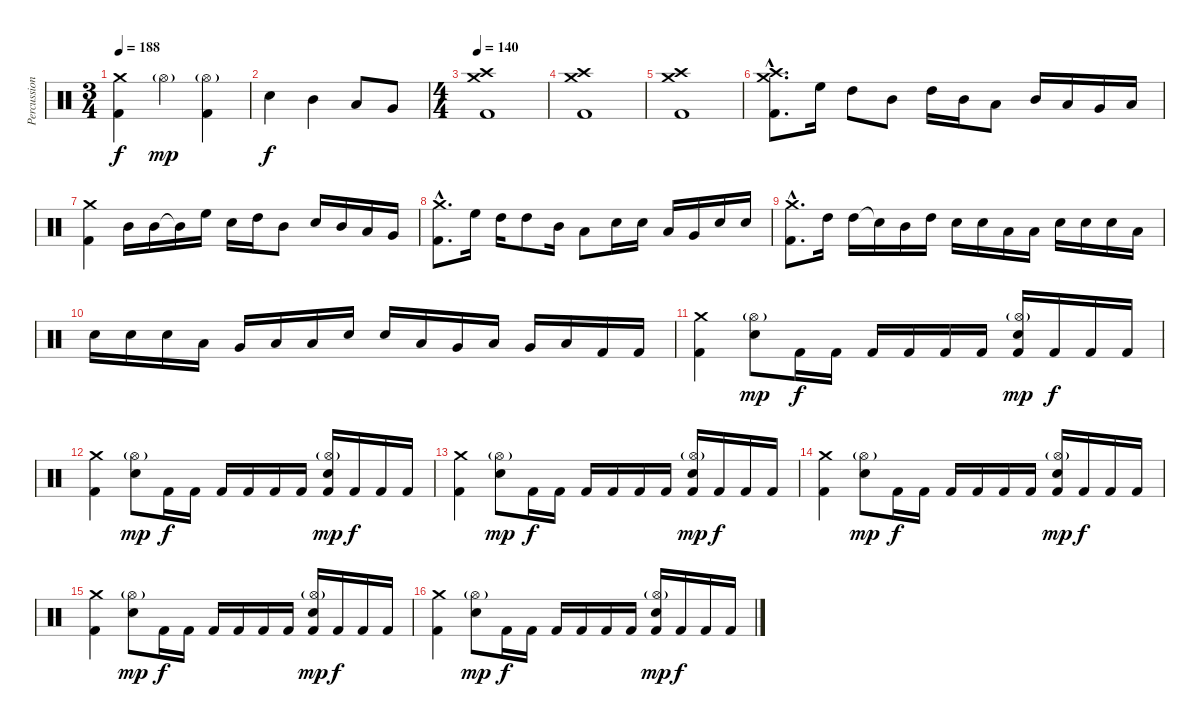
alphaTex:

\track ("Percussion" "Percussion") {instrument percussion}
\staff {score}
\articulation defaults
\ts (3 4)
\tempo 188
\clef neutral
\ks c
("Crash medium (hit)" "Kick (hit) 2").4{dy f} "Hi-Hat (open)"{g}.4{dy mp} ("Hi-Hat (open)"{g} "Kick (hit) 2").4 |
"Electric Snare (hit)".4{dy f} "Mid Tom (hit)".4 "Low Tom (hit)".8 "Very Low Tom (hit)".8 |
\ts (4 4)
\tempo 140
("Crash medium (hit)" "Crash high (hit)" "Kick (hit) 2").1 |
("Crash medium (hit)" "Crash high (hit)" "Kick (hit) 2").1 |
("Crash medium (hit)" "Crash high (hit)" "Kick (hit) 2").1 |
("Crash medium (hit)"{hac} "Crash high (hit)"{hac} "Kick (hit) 2"{hac}).8{d} "High Floor Tom (hit)".16 "High Tom (hit)".8 "Mid Tom (hit)".8 "High Tom (hit)".16 "Mid Tom (hit)".16 "Low Tom (hit)".8 "Mid Tom (hit)".16 "Low Tom (hit)".16 "Very Low Tom (hit)".16 "Low Floor Tom (hit)".16 |
("Crash medium (hit)" "Kick (hit) 2").4 "Mid Tom (hit)".16 "Mid Tom (hit)".16 "Mid Tom (hit)"{t}.16 "High Floor Tom (hit)".16 "Electric Snare (hit)".16 "High Tom (hit)".16 "Mid Tom (hit)".8 "Electric Snare (hit)".16 "Mid Tom (hit)".16 "Low Tom (hit)".16 "Very Low Tom (hit)".16 |
("Crash medium (hit)"{hac} "Kick (hit) 2"{hac}).8{d} "High Floor Tom (hit)".16 "High Tom (hit)".16 "High Tom (hit)".8 "Mid Tom (hit)".16 "Low Tom (hit)".8 "Electric Snare (hit)".16 "Electric Snare (hit)".16 "Low Tom (hit)".16 "Very Low Tom (hit)".16 "Electric Snare (hit)".16 "Electric Snare (hit)".16 |
("Crash medium (hit)"{hac} "Kick (hit) 2"{hac}).8{d} "High Tom (hit)".16 "High Tom (hit)".16 "Snare (hit)"{t}.16 "Mid Tom (hit)".16 "High Tom (hit)".16 "Electric Snare (hit)".16 "Electric Snare (hit)".16 "Low Tom (hit)".16 "Low Tom (hit)".16 "Electric Snare (hit)".16 "Electric Snare (hit)".16 "Electric Snare (hit)".16 "Low Tom (hit)".16 |
"Electric Snare (hit)".16 "Electric Snare (hit)".16 "Electric Snare (hit)".16 "Low Tom (hit)".16 "Very Low Tom (hit)".16 "Low Tom (hit)".16 "Low Tom (hit)".16 "Electric Snare (hit)".16 "Electric Snare (hit)".16 "Low Tom (hit)".16 "Very Low Tom (hit)".16 "Low Floor Tom (hit)".16 "Very Low Tom (hit)".16 "Low Floor Tom (hit)".16 "Kick (hit) 2".16 "Kick (hit) 2".16 |
("Crash medium (hit)" "Kick (hit) 2").4 ("Hi-Hat (open)"{g} "Electric Snare (hit)").8{dy mp} "Kick (hit) 2".16{dy f} "Kick (hit) 2".16 "Kick (hit) 2".16 "Kick (hit) 2".16 "Kick (hit) 2".16 "Kick (hit) 2".16 ("Hi-Hat (open)"{g} "Electric Snare (hit)" "Kick (hit) 2").16{dy mp} "Kick (hit) 2".16{dy f} "Kick (hit) 2".16 "Kick (hit) 2".16 |
("Crash medium (hit)" "Kick (hit) 2").4 ("Hi-Hat (open)"{g} "Electric Snare (hit)").8{dy mp} "Kick (hit) 2".16{dy f} "Kick (hit) 2".16 "Kick (hit) 2".16 "Kick (hit) 2".16 "Kick (hit) 2".16 "Kick (hit) 2".16 ("Hi-Hat (open)"{g} "Electric Snare (hit)" "Kick (hit) 2").16{dy mp} "Kick (hit) 2".16{dy f} "Kick (hit) 2".16 "Kick (hit) 2".16 |
("Crash medium (hit)" "Kick (hit) 2").4 ("Hi-Hat (open)"{g} "Electric Snare (hit)").8{dy mp} "Kick (hit) 2".16{dy f} "Kick (hit) 2".16 "Kick (hit) 2".16 "Kick (hit) 2".16 "Kick (hit) 2".16 "Kick (hit) 2".16 ("Hi-Hat (open)"{g} "Electric Snare (hit)" "Kick (hit) 2").16{dy mp} "Kick (hit) 2".16{dy f} "Kick (hit) 2".16 "Kick (hit) 2".16 |
("Crash medium (hit)" "Kick (hit) 2").4 ("Hi-Hat (open)"{g} "Electric Snare (hit)").8{dy mp} "Kick (hit) 2".16{dy f} "Kick (hit) 2".16 "Kick (hit) 2".16 "Kick (hit) 2".16 "Kick (hit) 2".16 "Kick (hit) 2".16 ("Hi-Hat (open)"{g} "Electric Snare (hit)" "Kick (hit) 2").16{dy mp} "Kick (hit) 2".16{dy f} "Kick (hit) 2".16 "Kick (hit) 2".16 |
("Crash medium (hit)" "Kick (hit) 2").4 ("Hi-Hat (open)"{g} "Electric Snare (hit)").8{dy mp} "Kick (hit) 2".16{dy f} "Kick (hit) 2".16 "Kick (hit) 2".16 "Kick (hit) 2".16 "Kick (hit) 2".16 "Kick (hit) 2".16 ("Hi-Hat (open)"{g} "Electric Snare (hit)" "Kick (hit) 2").16{dy mp} "Kick (hit) 2".16{dy f} "Kick (hit) 2".16 "Kick (hit) 2".16 |
("Crash medium (hit)" "Kick (hit) 2").4 ("Hi-Hat (open)"{g} "Electric Snare (hit)").8{dy mp} "Kick (hit) 2".16{dy f} "Kick (hit) 2".16 "Kick (hit) 2".16 "Kick (hit) 2".16 "Kick (hit) 2".16 "Kick (hit) 2".16 ("Hi-Hat (open)"{g} "Electric Snare (hit)" "Kick (hit) 2").16{dy mp} "Kick (hit) 2".16{dy f} "Kick (hit) 2".16 "Kick (hit) 2".16
